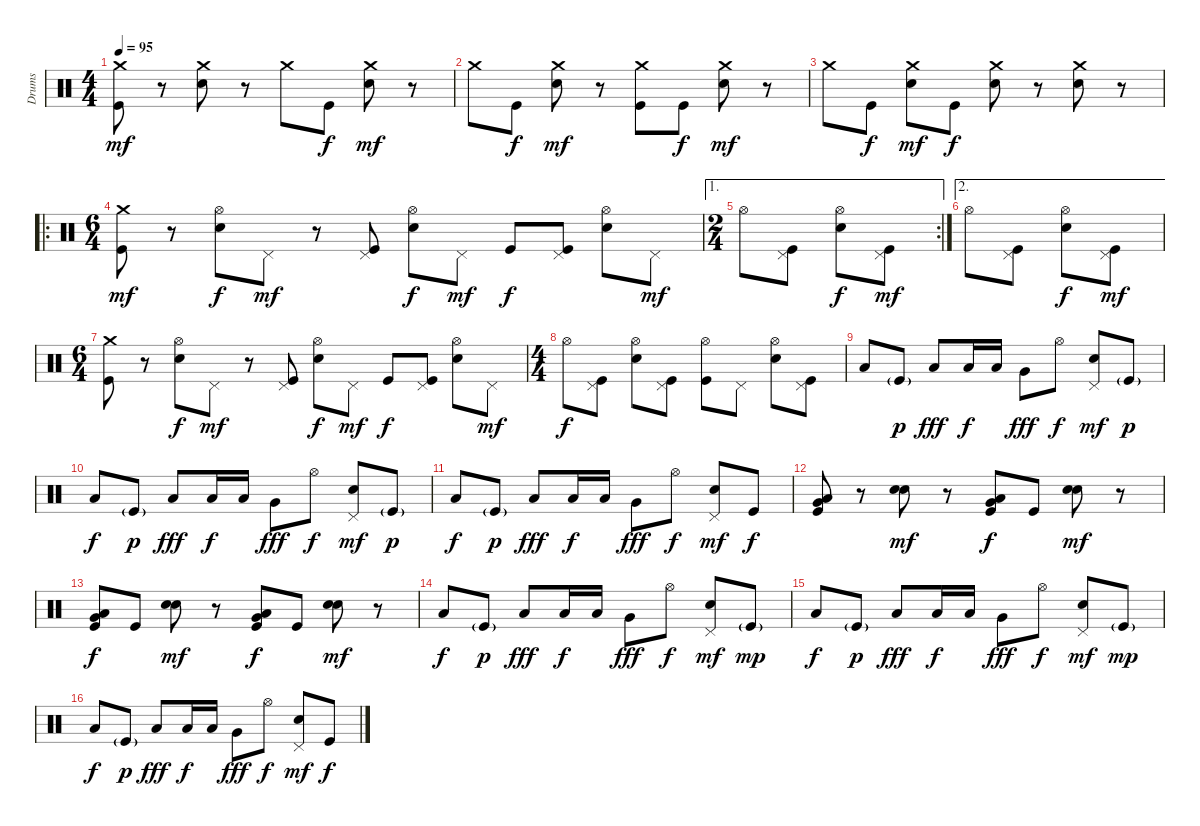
\track ("Drums" "Drums") {instrument percussion}
\staff {score}
\articulation defaults
\ts (4 4)
\tempo 95
\clef neutral
\ks c
("Crash medium (hit)" "Kick (hit)").8{dy mf} r.8 ("Crash medium (hit)" "Snare (hit) 2").8 r.8 "Crash medium (hit)".8 "Kick (hit)".8{dy f} ("Crash medium (hit)" "Snare (hit) 2").8{dy mf} r.8 |
"Crash medium (hit)".8 "Kick (hit)".8{dy f} ("Crash medium (hit)" "Snare (hit) 2").8{dy mf} r.8 ("Crash medium (hit)" "Kick (hit)").8 "Kick (hit)".8{dy f} ("Crash medium (hit)" "Snare (hit) 2").8{dy mf} r.8 |
"Crash medium (hit)".8 "Kick (hit)".8{dy f} ("Crash medium (hit)" "Snare (hit) 2").8{dy mf} "Kick (hit)".8{dy f} ("Crash medium (hit)" "Snare (hit) 2").8 r.8 ("Crash medium (hit)" "Snare (hit) 2").8 r.8 |
\ro
\ts (6 4)
("Crash medium (hit)" "Kick (hit)").8{dy mf} r.8 ("Hi-Hat (open)" "Snare (hit) 2").8{dy f} "Pedal Hi-Hat (hit)".8{dy mf} r.8 ("Pedal Hi-Hat (hit)" "Kick (hit)").8 ("Hi-Hat (open)" "Snare (hit) 2").8{dy f} "Pedal Hi-Hat (hit)".8{dy mf} "Kick (hit)".8{dy f} ("Pedal Hi-Hat (hit)" "Kick (hit)").8 ("Hi-Hat (open)" "Snare (hit) 2").8 "Pedal Hi-Hat (hit)".8{dy mf} |
\ae 1
\rc 2
\ts (2 4)
"Hi-Hat (open)".8 ("Pedal Hi-Hat (hit)" "Kick (hit)").8 ("Hi-Hat (open)" "Snare (hit) 2").8{dy f} ("Pedal Hi-Hat (hit)" "Kick (hit)").8{dy mf} |
\ae 2 "Hi-Hat (open)".8
("Pedal Hi-Hat (hit)" "Kick (hit)").8 ("Hi-Hat (open)" "Snare (hit) 2").8{dy f} ("Pedal Hi-Hat (hit)" "Kick (hit)").8{dy mf} |
\ts (6 4)
("Crash medium (hit)" "Kick (hit)").8 r.8 ("Hi-Hat (open)" "Snare (hit) 2").8{dy f} "Pedal Hi-Hat (hit)".8{dy mf} r.8 ("Pedal Hi-Hat (hit)" "Kick (hit)").8 ("Hi-Hat (open)" "Snare (hit) 2").8{dy f} "Pedal Hi-Hat (hit)".8{dy mf} "Kick (hit)".8{dy f} ("Pedal Hi-Hat (hit)" "Kick (hit)").8 ("Hi-Hat (open)" "Snare (hit) 2").8 "Pedal Hi-Hat (hit)".8{dy mf} |
\ts (4 4)
"Hi-Hat (open)".8{dy f} ("Pedal Hi-Hat (hit)" "Kick (hit)").8 ("Hi-Hat (open)" "Snare (hit) 2").8 ("Pedal Hi-Hat (hit)" "Kick (hit)").8 ("Hi-Hat (open)" "Kick (hit)").8 "Pedal Hi-Hat (hit)".8 ("Hi-Hat (open)" "Snare (hit) 2").8 ("Pedal Hi-Hat (hit)" "Kick (hit)").8 |
"Low Floor Tom (hit)".8 "Kick (hit)"{g}.8{dy p} "Low Tom (hit)".8{dy fff} "Low Tom (hit)".16{dy f} "Low Tom (hit)".16 "Very Low Tom (hit)".8{dy fff} "Hi-Hat (open)".8{dy f} ("Pedal Hi-Hat (hit)" "Snare (hit) 2").8{dy mf} "Kick (hit)"{g}.8{dy p} |
"Low Floor Tom (hit)".8{dy f} "Kick (hit)"{g}.8{dy p} "Low Tom (hit)".8{dy fff} "Low Tom (hit)".16{dy f} "Low Tom (hit)".16 "Very Low Tom (hit)".8{dy fff} "Hi-Hat (open)".8{dy f} ("Pedal Hi-Hat (hit)" "Snare (hit) 2").8{dy mf} "Kick (hit)"{g}.8{dy p} |
"Low Floor Tom (hit)".8{dy f} "Kick (hit)"{g}.8{dy p} "Low Tom (hit)".8{dy fff} "Low Tom (hit)".16{dy f} "Low Tom (hit)".16 "Very Low Tom (hit)".8{dy fff} "Hi-Hat (open)".8{dy f} ("Pedal Hi-Hat (hit)" "Snare (hit) 2").8{dy mf} "Kick (hit)".8{dy f} |
("Very Low Tom (hit)" "Low Floor Tom (hit)" "Kick (hit)").8 r.8 ("Snare (hit) 2" "Snare (hit) 2").8{dy mf} r.8 ("Very Low Tom (hit)" "Low Floor Tom (hit)" "Kick (hit)").8{dy f} "Kick (hit)".8 ("Snare (hit) 2" "Snare (hit) 2").8{dy mf} r.8 |
("Very Low Tom (hit)" "Low Floor Tom (hit)" "Kick (hit)").8{dy f} "Kick (hit)".8 ("Snare (hit) 2" "Snare (hit) 2").8{dy mf} r.8 ("Very Low Tom (hit)" "Low Floor Tom (hit)" "Kick (hit)").8{dy f} "Kick (hit)".8 ("Snare (hit) 2" "Snare (hit) 2").8{dy mf} r.8 |
"Low Floor Tom (hit)".8{dy f} "Kick (hit)"{g}.8{dy p} "Low Tom (hit)".8{dy fff} "Low Tom (hit)".16{dy f} "Low Tom (hit)".16 "Very Low Tom (hit)".8{dy fff} "Hi-Hat (open)".8{dy f} ("Pedal Hi-Hat (hit)" "Snare (hit) 2").8{dy mf} "Kick (hit)"{g}.8{dy mp} |
"Low Floor Tom (hit)".8{dy f} "Kick (hit)"{g}.8{dy p} "Low Tom (hit)".8{dy fff} "Low Tom (hit)".16{dy f} "Low Tom (hit)".16 "Very Low Tom (hit)".8{dy fff} "Hi-Hat (open)".8{dy f} ("Pedal Hi-Hat (hit)" "Snare (hit) 2").8{dy mf} "Kick (hit)"{g}.8{dy mp} |
"Low Floor Tom (hit)".8{dy f} "Kick (hit)"{g}.8{dy p} "Low Tom (hit)".8{dy fff} "Low Tom (hit)".16{dy f} "Low Tom (hit)".16 "Very Low Tom (hit)".8{dy fff} "Hi-Hat (open)".8{dy f} ("Pedal Hi-Hat (hit)" "Snare (hit) 2").8{dy mf} "Kick (hit)".8{dy f}
